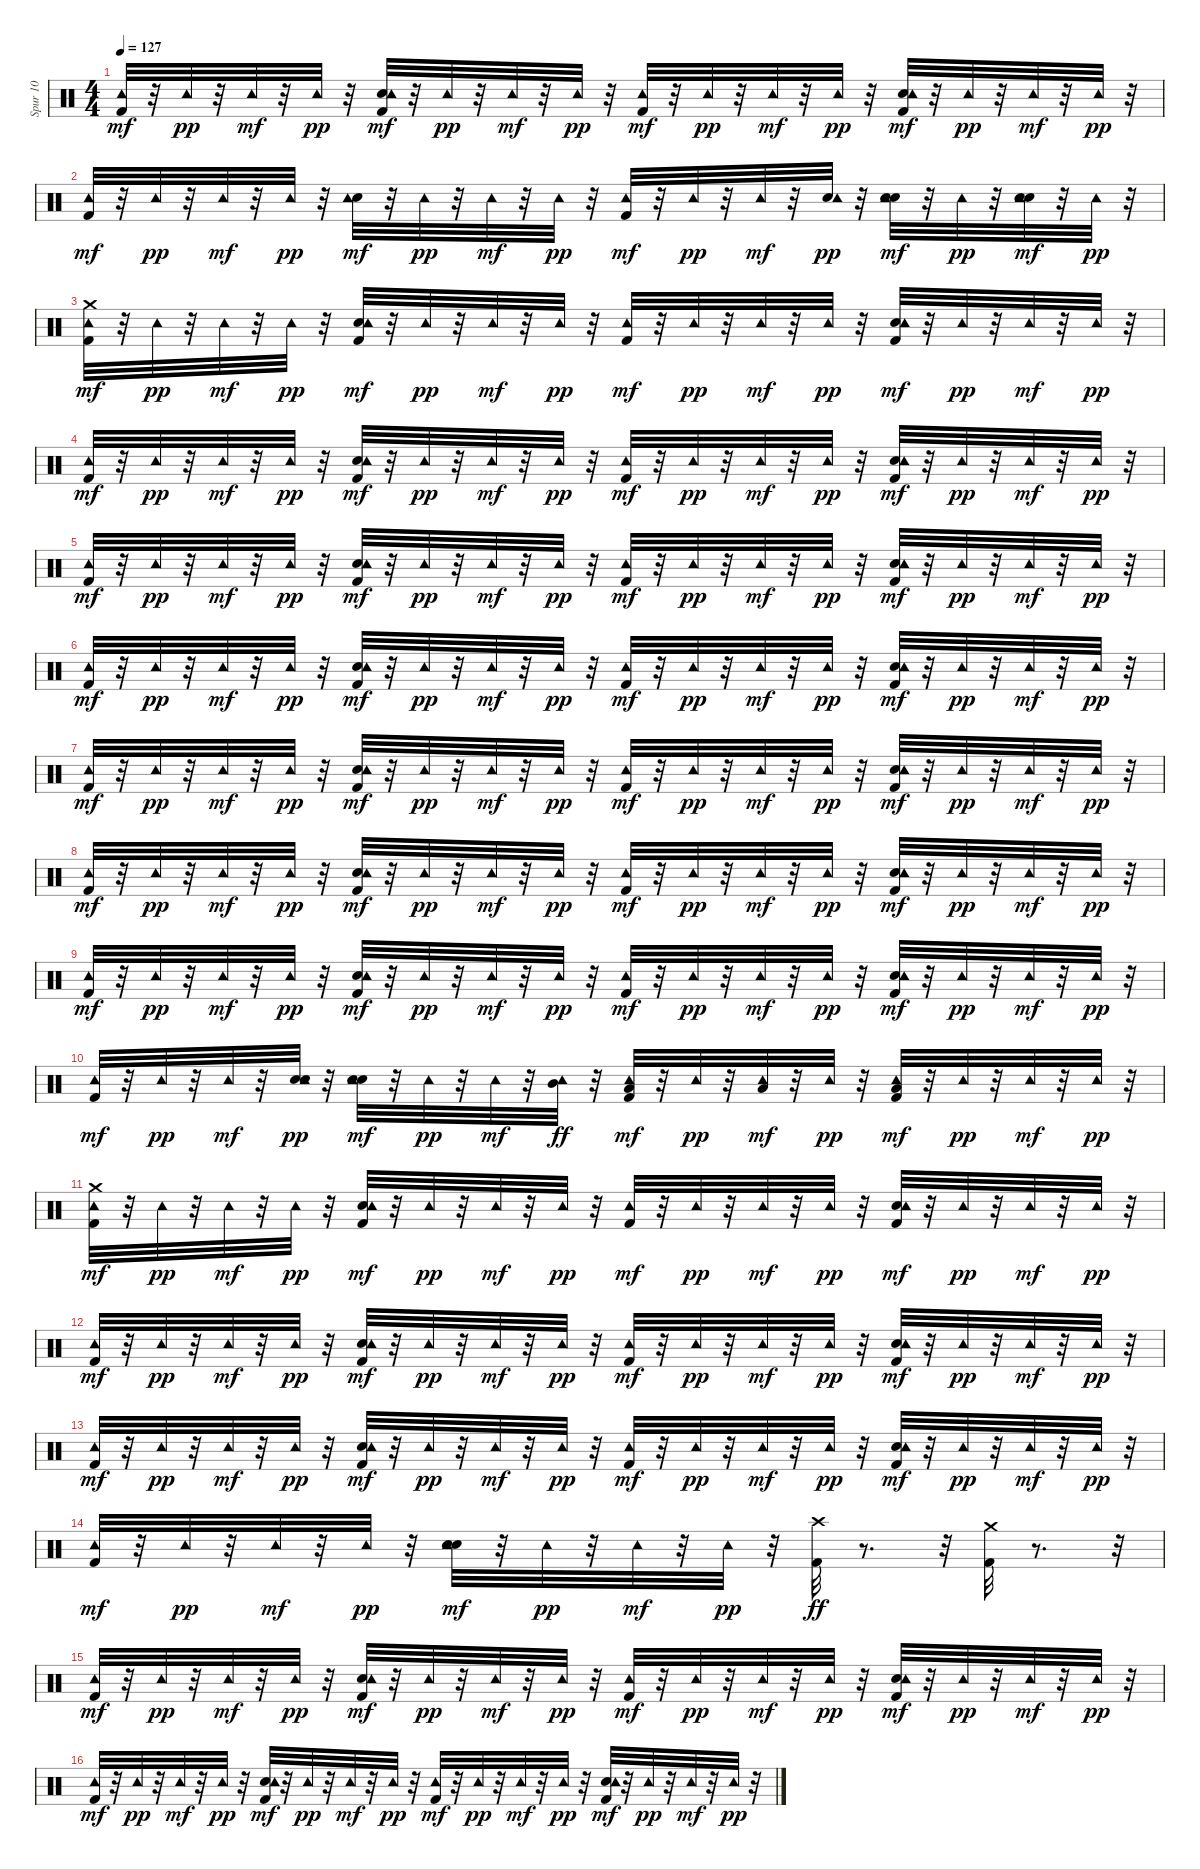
\track ("Spur 10" "Spur 10") {instrument percussion}
\staff {score}
\articulation defaults
\ts (4 4)
\tempo 127
\clef neutral
\ks c
("Kick (hit) 2" "Tambourine (hit)").32{dy mf} r.32 "Tambourine (hit)".32{dy pp} r.32 "Tambourine (hit)".32{dy mf} r.32 "Tambourine (hit)".32{dy pp} r.32 ("Kick (hit) 2" "Snare (hit) 2" "Tambourine (hit)").32{dy mf} r.32 "Tambourine (hit)".32{dy pp} r.32 "Tambourine (hit)".32{dy mf} r.32 "Tambourine (hit)".32{dy pp} r.32 ("Kick (hit) 2" "Tambourine (hit)").32{dy mf} r.32 "Tambourine (hit)".32{dy pp} r.32 "Tambourine (hit)".32{dy mf} r.32 "Tambourine (hit)".32{dy pp} r.32 ("Kick (hit) 2" "Snare (hit) 2" "Tambourine (hit)").32{dy mf} r.32 "Tambourine (hit)".32{dy pp} r.32 "Tambourine (hit)".32{dy mf} r.32 "Tambourine (hit)".32{dy pp} r.32 |
("Kick (hit) 2" "Tambourine (hit)").32{dy mf} r.32 "Tambourine (hit)".32{dy pp} r.32 "Tambourine (hit)".32{dy mf} r.32 "Tambourine (hit)".32{dy pp} r.32 ("Snare (hit) 2" "Tambourine (hit)").32{dy mf} r.32 "Tambourine (hit)".32{dy pp} r.32 "Tambourine (hit)".32{dy mf} r.32 "Tambourine (hit)".32{dy pp} r.32 ("Kick (hit) 2" "Tambourine (hit)").32{dy mf} r.32 "Tambourine (hit)".32{dy pp} r.32 "Tambourine (hit)".32{dy mf} r.32 ("Snare (hit) 2" "Tambourine (hit)").32{dy pp} r.32 ("Snare (hit) 2" "Electric Snare (hit)" "Tambourine (hit)").32{dy mf} r.32 "Tambourine (hit)".32{dy pp} r.32 ("Snare (hit) 2" "Electric Snare (hit)" "Tambourine (hit)").32{dy mf} r.32 "Tambourine (hit)".32{dy pp} r.32 |
("Kick (hit) 2" "Tambourine (hit)" "Crash medium (hit)").32{dy mf} r.32 "Tambourine (hit)".32{dy pp} r.32 "Tambourine (hit)".32{dy mf} r.32 "Tambourine (hit)".32{dy pp} r.32 ("Kick (hit) 2" "Snare (hit) 2" "Tambourine (hit)").32{dy mf} r.32 "Tambourine (hit)".32{dy pp} r.32 "Tambourine (hit)".32{dy mf} r.32 "Tambourine (hit)".32{dy pp} r.32 ("Kick (hit) 2" "Tambourine (hit)").32{dy mf} r.32 "Tambourine (hit)".32{dy pp} r.32 "Tambourine (hit)".32{dy mf} r.32 "Tambourine (hit)".32{dy pp} r.32 ("Kick (hit) 2" "Snare (hit) 2" "Tambourine (hit)").32{dy mf} r.32 "Tambourine (hit)".32{dy pp} r.32 "Tambourine (hit)".32{dy mf} r.32 "Tambourine (hit)".32{dy pp} r.32 |
("Kick (hit) 2" "Tambourine (hit)").32{dy mf} r.32 "Tambourine (hit)".32{dy pp} r.32 "Tambourine (hit)".32{dy mf} r.32 "Tambourine (hit)".32{dy pp} r.32 ("Kick (hit) 2" "Snare (hit) 2" "Tambourine (hit)").32{dy mf} r.32 "Tambourine (hit)".32{dy pp} r.32 "Tambourine (hit)".32{dy mf} r.32 "Tambourine (hit)".32{dy pp} r.32 ("Kick (hit) 2" "Tambourine (hit)").32{dy mf} r.32 "Tambourine (hit)".32{dy pp} r.32 "Tambourine (hit)".32{dy mf} r.32 "Tambourine (hit)".32{dy pp} r.32 ("Kick (hit) 2" "Snare (hit) 2" "Tambourine (hit)").32{dy mf} r.32 "Tambourine (hit)".32{dy pp} r.32 "Tambourine (hit)".32{dy mf} r.32 "Tambourine (hit)".32{dy pp} r.32 |
("Kick (hit) 2" "Tambourine (hit)").32{dy mf} r.32 "Tambourine (hit)".32{dy pp} r.32 "Tambourine (hit)".32{dy mf} r.32 "Tambourine (hit)".32{dy pp} r.32 ("Kick (hit) 2" "Snare (hit) 2" "Tambourine (hit)").32{dy mf} r.32 "Tambourine (hit)".32{dy pp} r.32 "Tambourine (hit)".32{dy mf} r.32 "Tambourine (hit)".32{dy pp} r.32 ("Kick (hit) 2" "Tambourine (hit)").32{dy mf} r.32 "Tambourine (hit)".32{dy pp} r.32 "Tambourine (hit)".32{dy mf} r.32 "Tambourine (hit)".32{dy pp} r.32 ("Kick (hit) 2" "Snare (hit) 2" "Tambourine (hit)").32{dy mf} r.32 "Tambourine (hit)".32{dy pp} r.32 "Tambourine (hit)".32{dy mf} r.32 "Tambourine (hit)".32{dy pp} r.32 |
("Kick (hit) 2" "Tambourine (hit)").32{dy mf} r.32 "Tambourine (hit)".32{dy pp} r.32 "Tambourine (hit)".32{dy mf} r.32 "Tambourine (hit)".32{dy pp} r.32 ("Kick (hit) 2" "Snare (hit) 2" "Tambourine (hit)").32{dy mf} r.32 "Tambourine (hit)".32{dy pp} r.32 "Tambourine (hit)".32{dy mf} r.32 "Tambourine (hit)".32{dy pp} r.32 ("Kick (hit) 2" "Tambourine (hit)").32{dy mf} r.32 "Tambourine (hit)".32{dy pp} r.32 "Tambourine (hit)".32{dy mf} r.32 "Tambourine (hit)".32{dy pp} r.32 ("Kick (hit) 2" "Snare (hit) 2" "Tambourine (hit)").32{dy mf} r.32 "Tambourine (hit)".32{dy pp} r.32 "Tambourine (hit)".32{dy mf} r.32 "Tambourine (hit)".32{dy pp} r.32 |
("Kick (hit) 2" "Tambourine (hit)").32{dy mf} r.32 "Tambourine (hit)".32{dy pp} r.32 "Tambourine (hit)".32{dy mf} r.32 "Tambourine (hit)".32{dy pp} r.32 ("Kick (hit) 2" "Snare (hit) 2" "Tambourine (hit)").32{dy mf} r.32 "Tambourine (hit)".32{dy pp} r.32 "Tambourine (hit)".32{dy mf} r.32 "Tambourine (hit)".32{dy pp} r.32 ("Kick (hit) 2" "Tambourine (hit)").32{dy mf} r.32 "Tambourine (hit)".32{dy pp} r.32 "Tambourine (hit)".32{dy mf} r.32 "Tambourine (hit)".32{dy pp} r.32 ("Kick (hit) 2" "Snare (hit) 2" "Tambourine (hit)").32{dy mf} r.32 "Tambourine (hit)".32{dy pp} r.32 "Tambourine (hit)".32{dy mf} r.32 "Tambourine (hit)".32{dy pp} r.32 |
("Kick (hit) 2" "Tambourine (hit)").32{dy mf} r.32 "Tambourine (hit)".32{dy pp} r.32 "Tambourine (hit)".32{dy mf} r.32 "Tambourine (hit)".32{dy pp} r.32 ("Kick (hit) 2" "Snare (hit) 2" "Tambourine (hit)").32{dy mf} r.32 "Tambourine (hit)".32{dy pp} r.32 "Tambourine (hit)".32{dy mf} r.32 "Tambourine (hit)".32{dy pp} r.32 ("Kick (hit) 2" "Tambourine (hit)").32{dy mf} r.32 "Tambourine (hit)".32{dy pp} r.32 "Tambourine (hit)".32{dy mf} r.32 "Tambourine (hit)".32{dy pp} r.32 ("Kick (hit) 2" "Snare (hit) 2" "Tambourine (hit)").32{dy mf} r.32 "Tambourine (hit)".32{dy pp} r.32 "Tambourine (hit)".32{dy mf} r.32 "Tambourine (hit)".32{dy pp} r.32 |
("Kick (hit) 2" "Tambourine (hit)").32{dy mf} r.32 "Tambourine (hit)".32{dy pp} r.32 "Tambourine (hit)".32{dy mf} r.32 "Tambourine (hit)".32{dy pp} r.32 ("Kick (hit) 2" "Snare (hit) 2" "Tambourine (hit)").32{dy mf} r.32 "Tambourine (hit)".32{dy pp} r.32 "Tambourine (hit)".32{dy mf} r.32 "Tambourine (hit)".32{dy pp} r.32 ("Kick (hit) 2" "Tambourine (hit)").32{dy mf} r.32 "Tambourine (hit)".32{dy pp} r.32 "Tambourine (hit)".32{dy mf} r.32 "Tambourine (hit)".32{dy pp} r.32 ("Kick (hit) 2" "Snare (hit) 2" "Tambourine (hit)").32{dy mf} r.32 "Tambourine (hit)".32{dy pp} r.32 "Tambourine (hit)".32{dy mf} r.32 "Tambourine (hit)".32{dy pp} r.32 |
("Kick (hit) 2" "Tambourine (hit)").32{dy mf} r.32 "Tambourine (hit)".32{dy pp} r.32 "Tambourine (hit)".32{dy mf} r.32 ("Snare (hit) 2" "Electric Snare (hit)" "Tambourine (hit)").32{dy pp} r.32 ("Snare (hit) 2" "Electric Snare (hit)" "Tambourine (hit)").32{dy mf} r.32 "Tambourine (hit)".32{dy pp} r.32 "Tambourine (hit)".32{dy mf} r.32 ("Tambourine (hit)" "Mid Tom (hit)").32{dy ff} r.32 ("Kick (hit) 2" "Low Tom (hit)" "Tambourine (hit)").32{dy mf} r.32 "Tambourine (hit)".32{dy pp} r.32 ("Low Tom (hit)" "Tambourine (hit)").32{dy mf} r.32 "Tambourine (hit)".32{dy pp} r.32 ("Kick (hit) 2" "Low Floor Tom (hit)" "Tambourine (hit)").32{dy mf} r.32 "Tambourine (hit)".32{dy pp} r.32 "Tambourine (hit)".32{dy mf} r.32 "Tambourine (hit)".32{dy pp} r.32 |
("Kick (hit) 2" "Tambourine (hit)" "Crash medium (hit)").32{dy mf} r.32 "Tambourine (hit)".32{dy pp} r.32 "Tambourine (hit)".32{dy mf} r.32 "Tambourine (hit)".32{dy pp} r.32 ("Kick (hit) 2" "Snare (hit) 2" "Tambourine (hit)").32{dy mf} r.32 "Tambourine (hit)".32{dy pp} r.32 "Tambourine (hit)".32{dy mf} r.32 "Tambourine (hit)".32{dy pp} r.32 ("Kick (hit) 2" "Tambourine (hit)").32{dy mf} r.32 "Tambourine (hit)".32{dy pp} r.32 "Tambourine (hit)".32{dy mf} r.32 "Tambourine (hit)".32{dy pp} r.32 ("Kick (hit) 2" "Snare (hit) 2" "Tambourine (hit)").32{dy mf} r.32 "Tambourine (hit)".32{dy pp} r.32 "Tambourine (hit)".32{dy mf} r.32 "Tambourine (hit)".32{dy pp} r.32 |
("Kick (hit) 2" "Tambourine (hit)").32{dy mf} r.32 "Tambourine (hit)".32{dy pp} r.32 "Tambourine (hit)".32{dy mf} r.32 "Tambourine (hit)".32{dy pp} r.32 ("Kick (hit) 2" "Snare (hit) 2" "Tambourine (hit)").32{dy mf} r.32 "Tambourine (hit)".32{dy pp} r.32 "Tambourine (hit)".32{dy mf} r.32 "Tambourine (hit)".32{dy pp} r.32 ("Kick (hit) 2" "Tambourine (hit)").32{dy mf} r.32 "Tambourine (hit)".32{dy pp} r.32 "Tambourine (hit)".32{dy mf} r.32 "Tambourine (hit)".32{dy pp} r.32 ("Kick (hit) 2" "Snare (hit) 2" "Tambourine (hit)").32{dy mf} r.32 "Tambourine (hit)".32{dy pp} r.32 "Tambourine (hit)".32{dy mf} r.32 "Tambourine (hit)".32{dy pp} r.32 |
("Kick (hit) 2" "Tambourine (hit)").32{dy mf} r.32 "Tambourine (hit)".32{dy pp} r.32 "Tambourine (hit)".32{dy mf} r.32 "Tambourine (hit)".32{dy pp} r.32 ("Kick (hit) 2" "Snare (hit) 2" "Tambourine (hit)").32{dy mf} r.32 "Tambourine (hit)".32{dy pp} r.32 "Tambourine (hit)".32{dy mf} r.32 "Tambourine (hit)".32{dy pp} r.32 ("Kick (hit) 2" "Tambourine (hit)").32{dy mf} r.32 "Tambourine (hit)".32{dy pp} r.32 "Tambourine (hit)".32{dy mf} r.32 "Tambourine (hit)".32{dy pp} r.32 ("Kick (hit) 2" "Snare (hit) 2" "Tambourine (hit)").32{dy mf} r.32 "Tambourine (hit)".32{dy pp} r.32 "Tambourine (hit)".32{dy mf} r.32 "Tambourine (hit)".32{dy pp} r.32 |
("Kick (hit) 2" "Tambourine (hit)").32{dy mf} r.32 "Tambourine (hit)".32{dy pp} r.32 "Tambourine (hit)".32{dy mf} r.32 "Tambourine (hit)".32{dy pp} r.32 ("Snare (hit) 2" "Electric Snare (hit)" "Tambourine (hit)").32{dy mf} r.32 "Tambourine (hit)".32{dy pp} r.32 "Tambourine (hit)".32{dy mf} r.32 "Tambourine (hit)".32{dy pp} r.32 ("Kick (hit) 2" "Crash high (hit)").32{dy ff} r.8{d} r.32 ("Kick (hit) 2" "Crash medium (hit)").32 r.8{d} r.32 |
("Kick (hit) 2" "Tambourine (hit)").32{dy mf} r.32 "Tambourine (hit)".32{dy pp} r.32 "Tambourine (hit)".32{dy mf} r.32 "Tambourine (hit)".32{dy pp} r.32 ("Kick (hit) 2" "Snare (hit) 2" "Tambourine (hit)").32{dy mf} r.32 "Tambourine (hit)".32{dy pp} r.32 "Tambourine (hit)".32{dy mf} r.32 "Tambourine (hit)".32{dy pp} r.32 ("Kick (hit) 2" "Tambourine (hit)").32{dy mf} r.32 "Tambourine (hit)".32{dy pp} r.32 "Tambourine (hit)".32{dy mf} r.32 "Tambourine (hit)".32{dy pp} r.32 ("Kick (hit) 2" "Snare (hit) 2" "Tambourine (hit)").32{dy mf} r.32 "Tambourine (hit)".32{dy pp} r.32 "Tambourine (hit)".32{dy mf} r.32 "Tambourine (hit)".32{dy pp} r.32 |
("Kick (hit) 2" "Tambourine (hit)").32{dy mf} r.32 "Tambourine (hit)".32{dy pp} r.32 "Tambourine (hit)".32{dy mf} r.32 "Tambourine (hit)".32{dy pp} r.32 ("Kick (hit) 2" "Snare (hit) 2" "Tambourine (hit)").32{dy mf} r.32 "Tambourine (hit)".32{dy pp} r.32 "Tambourine (hit)".32{dy mf} r.32 "Tambourine (hit)".32{dy pp} r.32 ("Kick (hit) 2" "Tambourine (hit)").32{dy mf} r.32 "Tambourine (hit)".32{dy pp} r.32 "Tambourine (hit)".32{dy mf} r.32 "Tambourine (hit)".32{dy pp} r.32 ("Kick (hit) 2" "Snare (hit) 2" "Tambourine (hit)").32{dy mf} r.32 "Tambourine (hit)".32{dy pp} r.32 "Tambourine (hit)".32{dy mf} r.32 "Tambourine (hit)".32{dy pp} r.32
